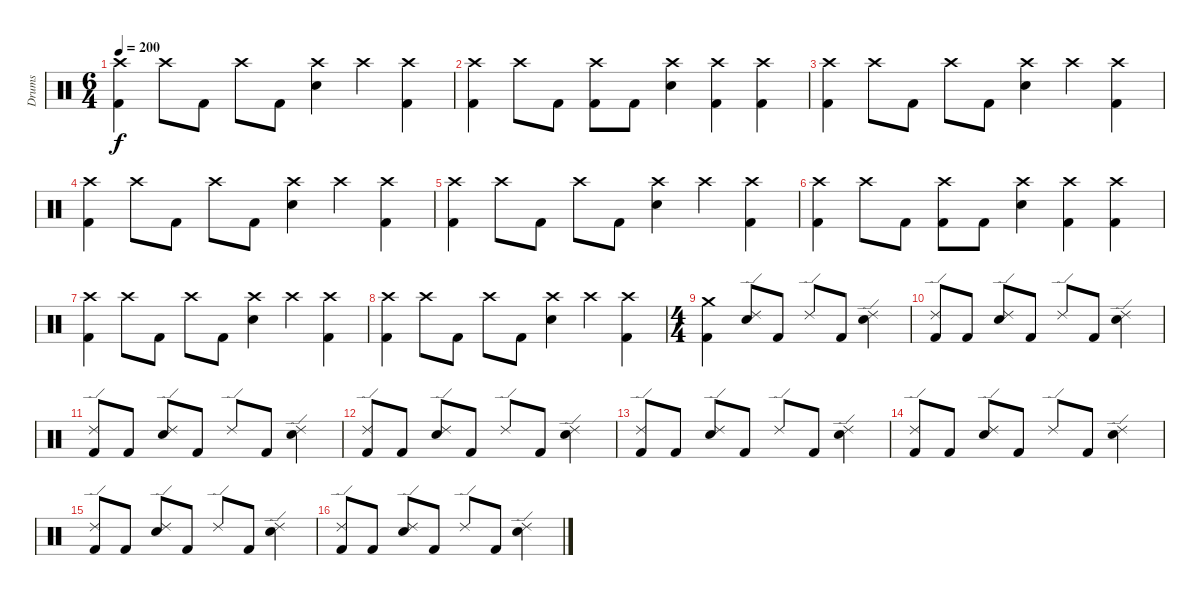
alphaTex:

\track ("Drums" "Drums") {instrument percussion}
\staff {score}
\articulation defaults
\ts (6 4)
\tempo 200
\clef neutral
\ks c
("Crash high (hit)" "Kick (hit) 2").4{dy f} "Crash high (hit)".8 "Kick (hit) 2".8 "Crash high (hit)".8 "Kick (hit) 2".8 ("Crash high (hit)" "Electric Snare (hit)").4 "Crash high (hit)".4 ("Kick (hit) 2" "Crash high (hit)").4 |
("Crash high (hit)" "Kick (hit) 2").4 "Crash high (hit)".8 "Kick (hit) 2".8 ("Crash high (hit)" "Kick (hit) 2").8 "Kick (hit) 2".8 ("Electric Snare (hit)" "Crash high (hit)").4 ("Kick (hit) 2" "Crash high (hit)").4 ("Kick (hit) 2" "Crash high (hit)").4 |
("Crash high (hit)" "Kick (hit) 2").4 "Crash high (hit)".8 "Kick (hit) 2".8 "Crash high (hit)".8 "Kick (hit) 2".8 ("Crash high (hit)" "Electric Snare (hit)").4 "Crash high (hit)".4 ("Kick (hit) 2" "Crash high (hit)").4 |
("Crash high (hit)" "Kick (hit) 2").4 "Crash high (hit)".8 "Kick (hit) 2".8 "Crash high (hit)".8 "Kick (hit) 2".8 ("Crash high (hit)" "Electric Snare (hit)").4 "Crash high (hit)".4 ("Kick (hit) 2" "Crash high (hit)").4 |
("Crash high (hit)" "Kick (hit) 2").4 "Crash high (hit)".8 "Kick (hit) 2".8 "Crash high (hit)".8 "Kick (hit) 2".8 ("Crash high (hit)" "Electric Snare (hit)").4 "Crash high (hit)".4 ("Kick (hit) 2" "Crash high (hit)").4 |
("Crash high (hit)" "Kick (hit) 2").4 "Crash high (hit)".8 "Kick (hit) 2".8 ("Crash high (hit)" "Kick (hit) 2").8 "Kick (hit) 2".8 ("Electric Snare (hit)" "Crash high (hit)").4 ("Kick (hit) 2" "Crash high (hit)").4 ("Kick (hit) 2" "Crash high (hit)").4 |
("Crash high (hit)" "Kick (hit) 2").4 "Crash high (hit)".8 "Kick (hit) 2".8 "Crash high (hit)".8 "Kick (hit) 2".8 ("Crash high (hit)" "Electric Snare (hit)").4 "Crash high (hit)".4 ("Kick (hit) 2" "Crash high (hit)").4 |
("Crash high (hit)" "Kick (hit) 2").4 "Crash high (hit)".8 "Kick (hit) 2".8 "Crash high (hit)".8 "Kick (hit) 2".8 ("Crash high (hit)" "Electric Snare (hit)").4 "Crash high (hit)".4 ("Kick (hit) 2" "Crash high (hit)").4 |
\ts (4 4)
("Crash medium (hit)" "Kick (hit) 2").4 ("Ride (edge) 2" "Electric Snare (hit)").8 "Kick (hit) 2".8 "Ride (edge) 2".8 "Kick (hit) 2".8 ("Ride (edge) 2" "Electric Snare (hit)").4 |
("Kick (hit) 2" "Ride (edge) 2").8 "Kick (hit) 2".8 ("Electric Snare (hit)" "Ride (edge) 2").8 "Kick (hit) 2".8 "Ride (edge) 2".8 "Kick (hit) 2".8 ("Electric Snare (hit)" "Ride (edge) 2").4 |
("Kick (hit) 2" "Ride (edge) 2").8 "Kick (hit) 2".8 ("Electric Snare (hit)" "Ride (edge) 2").8 "Kick (hit) 2".8 "Ride (edge) 2".8 "Kick (hit) 2".8 ("Electric Snare (hit)" "Ride (edge) 2").4 |
("Kick (hit) 2" "Ride (edge) 2").8 "Kick (hit) 2".8 ("Electric Snare (hit)" "Ride (edge) 2").8 "Kick (hit) 2".8 "Ride (edge) 2".8 "Kick (hit) 2".8 ("Electric Snare (hit)" "Ride (edge) 2").4 |
("Kick (hit) 2" "Ride (edge) 2").8 "Kick (hit) 2".8 ("Electric Snare (hit)" "Ride (edge) 2").8 "Kick (hit) 2".8 "Ride (edge) 2".8 "Kick (hit) 2".8 ("Electric Snare (hit)" "Ride (edge) 2").4 |
("Kick (hit) 2" "Ride (edge) 2").8 "Kick (hit) 2".8 ("Electric Snare (hit)" "Ride (edge) 2").8 "Kick (hit) 2".8 "Ride (edge) 2".8 "Kick (hit) 2".8 ("Electric Snare (hit)" "Ride (edge) 2").4 |
("Kick (hit) 2" "Ride (edge) 2").8 "Kick (hit) 2".8 ("Electric Snare (hit)" "Ride (edge) 2").8 "Kick (hit) 2".8 "Ride (edge) 2".8 "Kick (hit) 2".8 ("Electric Snare (hit)" "Ride (edge) 2").4 |
("Kick (hit) 2" "Ride (edge) 2").8 "Kick (hit) 2".8 ("Electric Snare (hit)" "Ride (edge) 2").8 "Kick (hit) 2".8 "Ride (edge) 2".8 "Kick (hit) 2".8 ("Electric Snare (hit)" "Ride (edge) 2").4
